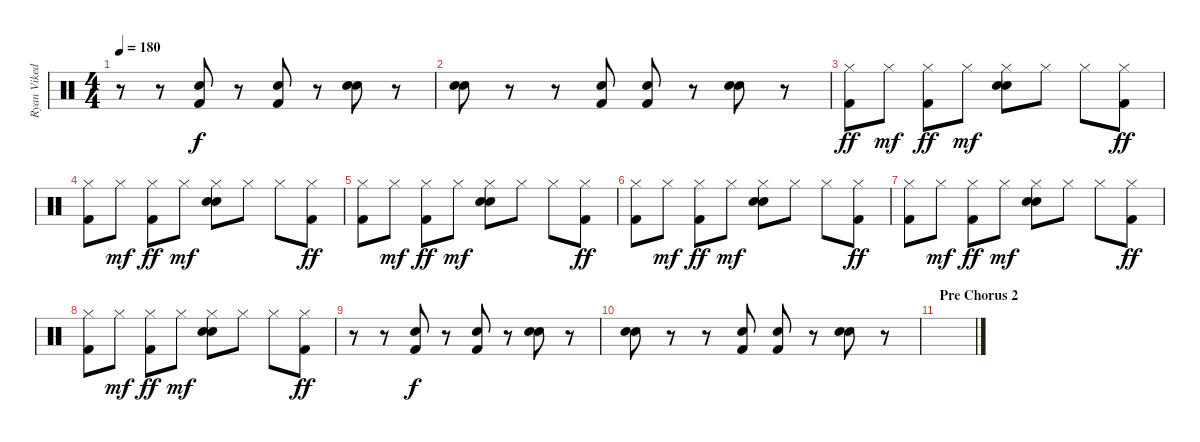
\track ("Ryan Vikedal(drums)" "Ryan Viked") {instrument percussion}
\staff {score}
\articulation defaults
\ts (4 4)
\tempo 180
\clef neutral
\ks c
r.8{dy mf} r.8 ("Electric Snare (hit)" "Kick (hit) 2").8{dy f} r.8 ("Electric Snare (hit)" "Kick (hit) 2").8 r.8 ("Electric Snare (hit)" "Electric Snare (hit)").8 r.8 |
("Electric Snare (hit)" "Electric Snare (hit)").8 r.8 r.8 ("Electric Snare (hit)" "Kick (hit) 2").8 ("Electric Snare (hit)" "Kick (hit) 2").8 r.8 ("Electric Snare (hit)" "Electric Snare (hit)").8 r.8 |
("Hi-Hat (closed)" "Kick (hit) 2").8{dy ff} "Hi-Hat (closed)".8{dy mf} ("Hi-Hat (closed)" "Kick (hit) 2").8{dy ff} "Hi-Hat (closed)".8{dy mf} ("Hi-Hat (closed)" "Electric Snare (hit)" "Electric Snare (hit)").8 "Hi-Hat (closed)".8 "Hi-Hat (closed)".8 ("Hi-Hat (closed)" "Kick (hit) 2").8{dy ff} |
("Hi-Hat (closed)" "Kick (hit) 2").8 "Hi-Hat (closed)".8{dy mf} ("Hi-Hat (closed)" "Kick (hit) 2").8{dy ff} "Hi-Hat (closed)".8{dy mf} ("Hi-Hat (closed)" "Electric Snare (hit)" "Electric Snare (hit)").8 "Hi-Hat (closed)".8 "Hi-Hat (closed)".8 ("Hi-Hat (closed)" "Kick (hit) 2").8{dy ff} |
("Hi-Hat (closed)" "Kick (hit) 2").8 "Hi-Hat (closed)".8{dy mf} ("Hi-Hat (closed)" "Kick (hit) 2").8{dy ff} "Hi-Hat (closed)".8{dy mf} ("Hi-Hat (closed)" "Electric Snare (hit)" "Electric Snare (hit)").8 "Hi-Hat (closed)".8 "Hi-Hat (closed)".8 ("Hi-Hat (closed)" "Kick (hit) 2").8{dy ff} |
("Hi-Hat (closed)" "Kick (hit) 2").8 "Hi-Hat (closed)".8{dy mf} ("Hi-Hat (closed)" "Kick (hit) 2").8{dy ff} "Hi-Hat (closed)".8{dy mf} ("Hi-Hat (closed)" "Electric Snare (hit)" "Electric Snare (hit)").8 "Hi-Hat (closed)".8 "Hi-Hat (closed)".8 ("Hi-Hat (closed)" "Kick (hit) 2").8{dy ff} |
("Hi-Hat (closed)" "Kick (hit) 2").8 "Hi-Hat (closed)".8{dy mf} ("Hi-Hat (closed)" "Kick (hit) 2").8{dy ff} "Hi-Hat (closed)".8{dy mf} ("Hi-Hat (closed)" "Electric Snare (hit)" "Electric Snare (hit)").8 "Hi-Hat (closed)".8 "Hi-Hat (closed)".8 ("Hi-Hat (closed)" "Kick (hit) 2").8{dy ff} |
("Hi-Hat (closed)" "Kick (hit) 2").8 "Hi-Hat (closed)".8{dy mf} ("Hi-Hat (closed)" "Kick (hit) 2").8{dy ff} "Hi-Hat (closed)".8{dy mf} ("Hi-Hat (closed)" "Electric Snare (hit)" "Electric Snare (hit)").8 "Hi-Hat (closed)".8 "Hi-Hat (closed)".8 ("Hi-Hat (closed)" "Kick (hit) 2").8{dy ff} |
r.8 r.8 ("Electric Snare (hit)" "Kick (hit) 2").8{dy f} r.8 ("Electric Snare (hit)" "Kick (hit) 2").8 r.8 ("Electric Snare (hit)" "Electric Snare (hit)").8 r.8 |
("Electric Snare (hit)" "Electric Snare (hit)").8 r.8 r.8 ("Electric Snare (hit)" "Kick (hit) 2").8 ("Electric Snare (hit)" "Kick (hit) 2").8 r.8 ("Electric Snare (hit)" "Electric Snare (hit)").8 r.8 |
\section ("" "Pre Chorus 2")
